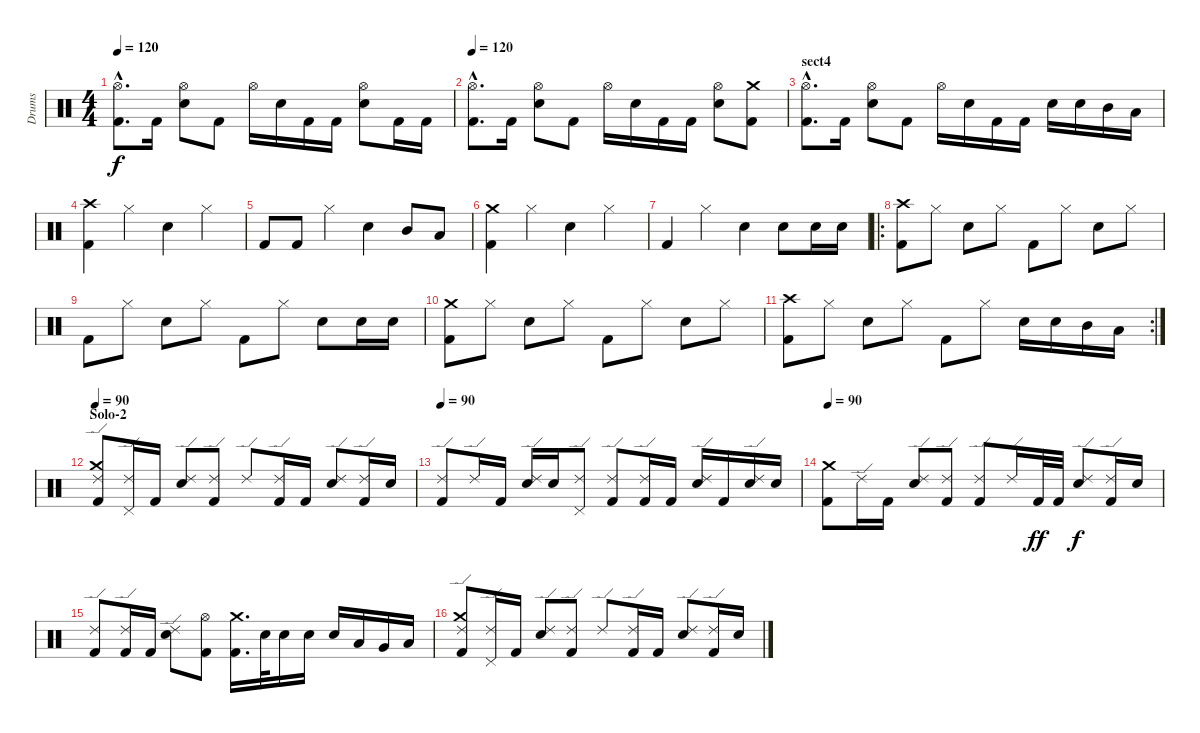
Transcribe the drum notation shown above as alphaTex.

\track ("Drums" "Drums") {instrument percussion}
\staff {score}
\articulation defaults
\ts (4 4)
\tempo 120
\clef neutral
\ks c
("Hi-Hat (open)"{hac} "Kick (hit) 2"{hac}).8{d dy f} "Kick (hit) 2".16 ("Hi-Hat (open)" "Electric Snare (hit)").8 "Kick (hit) 2".8 "Hi-Hat (open)".16 "Electric Snare (hit)".16 "Kick (hit) 2".16 "Kick (hit) 2".16 ("Hi-Hat (open)" "Electric Snare (hit)").8 "Kick (hit) 2".16 "Kick (hit) 2".16 |
\tempo 105
\tempo 120
("Hi-Hat (open)"{hac} "Kick (hit) 2"{hac}).8{d} "Kick (hit) 2".16 ("Hi-Hat (open)" "Electric Snare (hit)").8 "Kick (hit) 2".8 "Hi-Hat (open)".16 "Electric Snare (hit)".16 "Kick (hit) 2".16 "Kick (hit) 2".16 ("Hi-Hat (open)" "Electric Snare (hit)").8 ("Crash medium (hit)" "Kick (hit) 2").8 |
\section ("" "sect4")
("Hi-Hat (open)"{hac} "Kick (hit) 2"{hac}).8{d} "Kick (hit) 2".16 ("Hi-Hat (open)" "Electric Snare (hit)").8 "Kick (hit) 2".8 "Hi-Hat (open)".16 "Electric Snare (hit)".16 "Kick (hit) 2".16 "Kick (hit) 2".16 "Electric Snare (hit)".16 "Electric Snare (hit)".16 "Mid Tom (hit)".16 "Low Tom (hit)".16 |
("Crash high (hit)" "Kick (hit) 2").4 "Hi-Hat (closed)".4 "Electric Snare (hit)".4 "Hi-Hat (closed)".4 |
"Kick (hit) 2".8 "Kick (hit) 2".8 "Hi-Hat (closed)".4 "Electric Snare (hit)".4 "Mid Tom (hit)".8 "Low Tom (hit)".8 |
("Crash medium (hit)" "Kick (hit) 2").4 "Hi-Hat (closed)".4 "Electric Snare (hit)".4 "Hi-Hat (closed)".4 |
"Kick (hit) 2".4 "Hi-Hat (closed)".4 "Electric Snare (hit)".4 "Electric Snare (hit)".8 "Electric Snare (hit)".16 "Electric Snare (hit)".16 |
\ro
("Crash high (hit)" "Kick (hit) 2").8 "Hi-Hat (closed)".8 "Electric Snare (hit)".8 "Hi-Hat (closed)".8 "Kick (hit) 2".8 "Hi-Hat (closed)".8 "Electric Snare (hit)".8 "Hi-Hat (closed)".8 |
"Kick (hit) 2".8 "Hi-Hat (closed)".8 "Electric Snare (hit)".8 "Hi-Hat (closed)".8 "Kick (hit) 2".8 "Hi-Hat (closed)".8 "Electric Snare (hit)".8 "Electric Snare (hit)".16 "Electric Snare (hit)".16 |
("Crash medium (hit)" "Kick (hit) 2").8 "Hi-Hat (closed)".8 "Electric Snare (hit)".8 "Hi-Hat (closed)".8 "Kick (hit) 2".8 "Hi-Hat (closed)".8 "Electric Snare (hit)".8 "Hi-Hat (closed)".8 |
\rc 2
("Crash high (hit)" "Kick (hit) 2").8 "Hi-Hat (closed)".8 "Electric Snare (hit)".8 "Hi-Hat (closed)".8 "Kick (hit) 2".8 "Hi-Hat (closed)".8 "Electric Snare (hit)".16 "Electric Snare (hit)".16 "Mid Tom (hit)".16 "Low Tom (hit)".16 |
\section ("" "Solo-2")
\tempo 90
("Kick (hit) 2" "Crash medium (hit)" "Ride (edge) 2").8{volume 14} ("Pedal Hi-Hat (hit)" "Ride (edge) 2").16 "Kick (hit) 2".16 ("Electric Snare (hit)" "Ride (edge) 2").8 ("Kick (hit) 2" "Ride (edge) 2").8 "Ride (edge) 2".8 ("Kick (hit) 2" "Ride (edge) 2").16 "Kick (hit) 2".16 ("Electric Snare (hit)" "Ride (edge) 2").8 ("Kick (hit) 2" "Ride (edge) 2").16 "Electric Snare (hit)".16 |
\tempo 90
("Kick (hit) 2" "Ride (edge) 2").8 "Ride (edge) 2".16 "Kick (hit) 2".16 ("Electric Snare (hit)" "Ride (edge) 2").16 "Electric Snare (hit)".16 ("Ride (edge) 2" "Pedal Hi-Hat (hit)").8 ("Kick (hit) 2" "Ride (edge) 2").8 ("Kick (hit) 2" "Ride (edge) 2").16 "Kick (hit) 2".16 ("Electric Snare (hit)" "Ride (edge) 2").16 "Kick (hit) 2".16 ("Electric Snare (hit)" "Ride (edge) 2").16 "Electric Snare (hit)".16 |
\tempo 90
("Kick (hit) 2" "Crash medium (hit)").8 "Ride (edge) 2".16 "Kick (hit) 2".16 ("Electric Snare (hit)" "Ride (edge) 2").8 ("Kick (hit) 2" "Ride (edge) 2").8 ("Kick (hit) 2" "Ride (edge) 2").8 "Ride (edge) 2".16 "Kick (hit) 2".32{dy ff} "Kick (hit) 2".32 ("Electric Snare (hit)" "Ride (edge) 2").8{dy f} ("Kick (hit) 2" "Ride (edge) 2").16 "Electric Snare (hit)".16 |
("Kick (hit) 2" "Ride (edge) 2").8 ("Kick (hit) 2" "Ride (edge) 2").16 "Kick (hit) 2".16 ("Electric Snare (hit)" "Ride (edge) 2").8 ("Hi-Hat (open)" "Kick (hit) 2").8 ("Crash medium (hit)" "Kick (hit) 2").16{d} "Electric Snare (hit)".32 "Electric Snare (hit)".16 "Electric Snare (hit)".16 "Electric Snare (hit)".16 "Low Tom (hit)".16 "Very Low Tom (hit)".16 "Low Floor Tom (hit)".16 |
("Kick (hit) 2" "Crash medium (hit)" "Ride (edge) 2").8 ("Pedal Hi-Hat (hit)" "Ride (edge) 2").16 "Kick (hit) 2".16 ("Electric Snare (hit)" "Ride (edge) 2").8 ("Kick (hit) 2" "Ride (edge) 2").8 "Ride (edge) 2".8 ("Kick (hit) 2" "Ride (edge) 2").16 "Kick (hit) 2".16 ("Electric Snare (hit)" "Ride (edge) 2").8 ("Kick (hit) 2" "Ride (edge) 2").16 "Electric Snare (hit)".16
